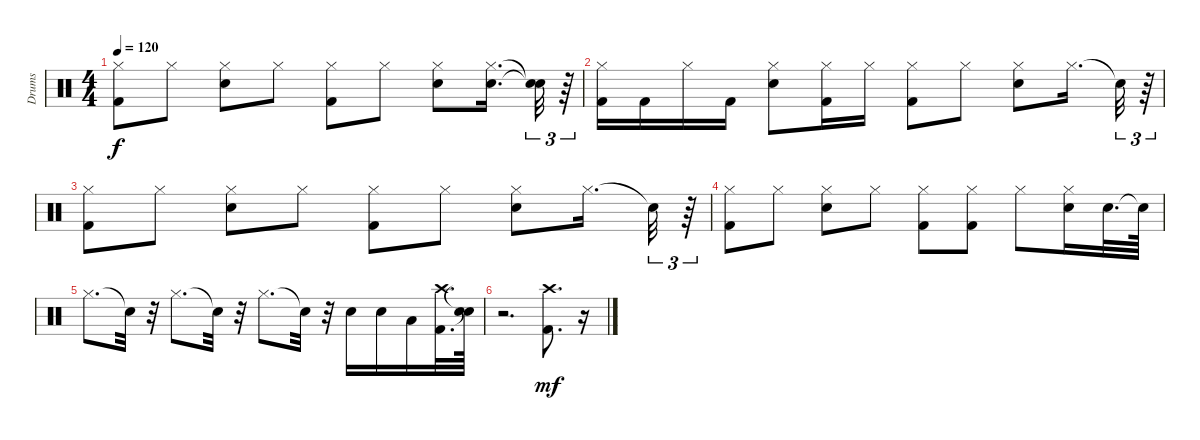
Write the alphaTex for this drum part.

\track ("Drums" "Drums") {instrument percussion}
\staff {score}
\articulation defaults
\ts (4 4)
\tempo 120
\clef neutral
\ks c
("Hi-Hat (closed)" "Kick (hit) 2").8{dy f} "Hi-Hat (closed)".8 ("Snare (hit) 2" "Hi-Hat (closed)").8 "Hi-Hat (closed)".8 ("Hi-Hat (closed)" "Kick (hit) 2").8 "Hi-Hat (closed)".8 ("Snare (hit) 2" "Hi-Hat (closed)").8 ("Snare (hit) 2" "Hi-Hat (closed)").16{d} ("Snare (hit)"{t} "Snare (hit)"{t}).32{tu (3 2)} r.64{tu (3 2)} |
("Hi-Hat (closed)" "Kick (hit) 2").16 "Kick (hit) 2".16 "Hi-Hat (closed)".16 "Kick (hit) 2".16 ("Hi-Hat (closed)" "Snare (hit) 2").8 ("Hi-Hat (closed)" "Kick (hit) 2").16 "Hi-Hat (closed)".16 ("Hi-Hat (closed)" "Kick (hit) 2").8 "Hi-Hat (closed)".8 ("Snare (hit) 2" "Hi-Hat (closed)").8 "Hi-Hat (closed)".16{d} "Snare (hit)"{t}.32{tu (3 2)} r.64{tu (3 2)} |
("Hi-Hat (closed)" "Kick (hit) 2").8 "Hi-Hat (closed)".8 ("Snare (hit) 2" "Hi-Hat (closed)").8 "Hi-Hat (closed)".8 ("Kick (hit) 2" "Hi-Hat (closed)").8 "Hi-Hat (closed)".8 ("Hi-Hat (closed)" "Snare (hit) 2").8 "Hi-Hat (closed)".16{d} "Snare (hit)"{t}.32{tu (3 2)} r.64{tu (3 2)} |
("Hi-Hat (closed)" "Kick (hit) 2").8 "Hi-Hat (closed)".8 ("Hi-Hat (closed)" "Snare (hit) 2").8 "Hi-Hat (closed)".8 ("Hi-Hat (closed)" "Kick (hit) 2").8 ("Kick (hit) 2" "Hi-Hat (closed)").8 "Hi-Hat (closed)".8 ("Hi-Hat (closed)" "Snare (hit) 2").16 "Snare (hit) 2".32{d} "Snare (hit)"{t}.64 |
"Hi-Hat (closed)".8{d} "Snare (hit)"{t}.32 r.32 "Hi-Hat (closed)".8{d} "Snare (hit)"{t}.32 r.32 "Hi-Hat (closed)".8{d} "Snare (hit)"{t}.32 r.32 "Snare (hit) 2".16 "Snare (hit) 2".16 "Low Tom (hit)".16 ("Crash high (hit)" "Kick (hit) 2").32{d} ("Snare (hit)"{t} "Snare (hit)"{t}).64 |
r.2{d} ("Kick (hit) 2" "Crash high (hit)").8{d dy mf} r.16
